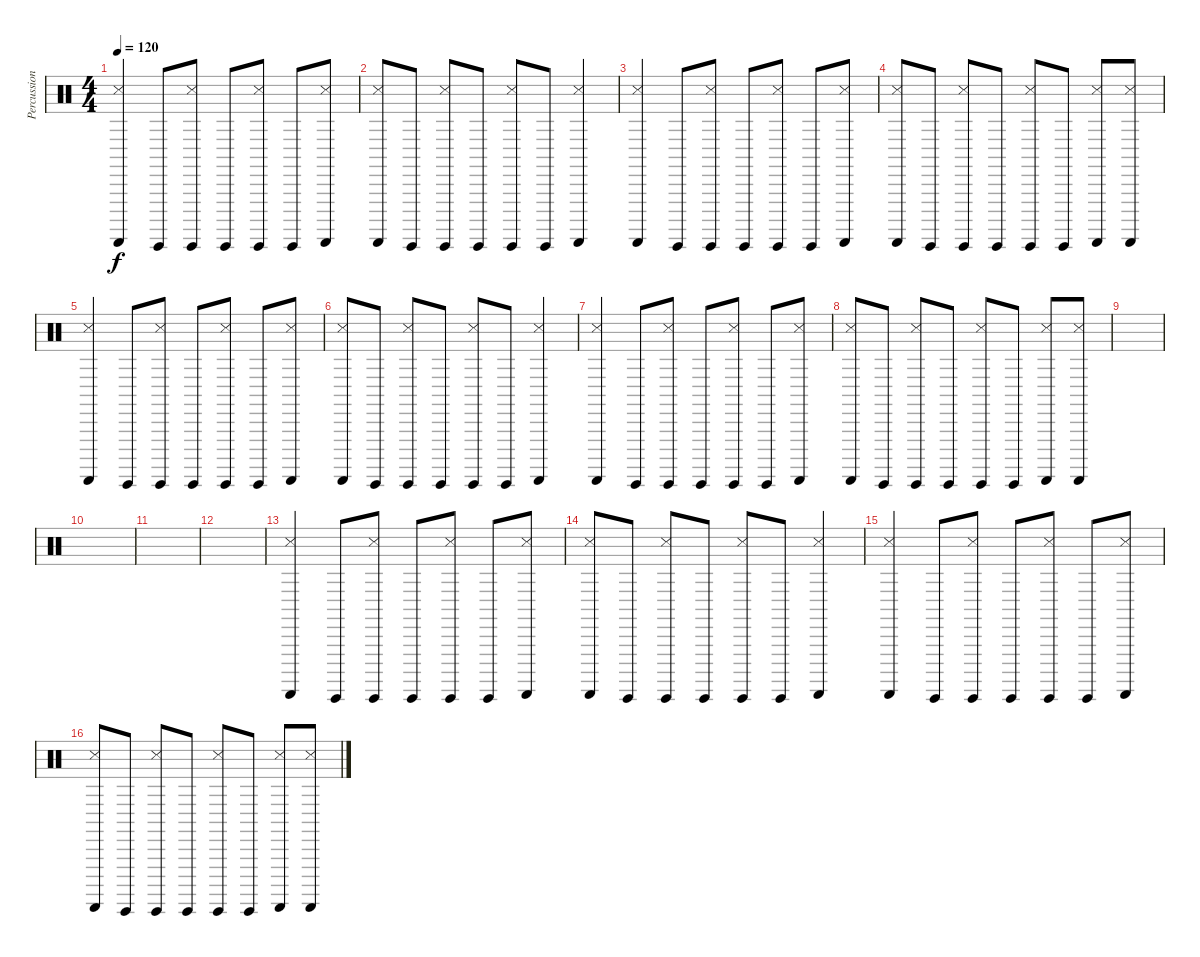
\track ("Percussions" "Percussion") {instrument percussion}
\staff {score}
\articulation defaults
\ts (4 4)
\tempo 120
\clef neutral
\ks c
("Guiro (scrap-return)" "Snare (side stick) 3").4{dy f} "Guiro (hit)".8 ("Guiro (hit)" "Snare (side stick) 3").8 "Guiro (hit)".8 ("Guiro (hit)" "Snare (side stick) 3").8 "Guiro (hit)".8 ("Guiro (scrap-return)" "Snare (side stick) 3").8 |
("Guiro (scrap-return)" "Snare (side stick) 3").8 "Guiro (hit)".8 ("Guiro (hit)" "Snare (side stick) 3").8 "Guiro (hit)".8 ("Guiro (hit)" "Snare (side stick) 3").8 "Guiro (hit)".8 ("Guiro (scrap-return)" "Snare (side stick) 3").4 |
("Guiro (scrap-return)" "Snare (side stick) 3").4 "Guiro (hit)".8 ("Guiro (hit)" "Snare (side stick) 3").8 "Guiro (hit)".8 ("Guiro (hit)" "Snare (side stick) 3").8 "Guiro (hit)".8 ("Guiro (scrap-return)" "Snare (side stick) 3").8 |
("Guiro (scrap-return)" "Snare (side stick) 3").8 "Guiro (hit)".8 ("Guiro (hit)" "Snare (side stick) 3").8 "Guiro (hit)".8 ("Guiro (hit)" "Snare (side stick) 3").8 "Guiro (hit)".8 ("Guiro (scrap-return)" "Snare (side stick) 3").8 ("Guiro (scrap-return)" "Snare (side stick) 3").8 |
("Guiro (scrap-return)" "Snare (side stick) 3").4 "Guiro (hit)".8 ("Guiro (hit)" "Snare (side stick) 3").8 "Guiro (hit)".8 ("Guiro (hit)" "Snare (side stick) 3").8 "Guiro (hit)".8 ("Guiro (scrap-return)" "Snare (side stick) 3").8 |
("Guiro (scrap-return)" "Snare (side stick) 3").8 "Guiro (hit)".8 ("Guiro (hit)" "Snare (side stick) 3").8 "Guiro (hit)".8 ("Guiro (hit)" "Snare (side stick) 3").8 "Guiro (hit)".8 ("Guiro (scrap-return)" "Snare (side stick) 3").4 |
("Guiro (scrap-return)" "Snare (side stick) 3").4 "Guiro (hit)".8 ("Guiro (hit)" "Snare (side stick) 3").8 "Guiro (hit)".8 ("Guiro (hit)" "Snare (side stick) 3").8 "Guiro (hit)".8 ("Guiro (scrap-return)" "Snare (side stick) 3").8 |
("Guiro (scrap-return)" "Snare (side stick) 3").8 "Guiro (hit)".8 ("Guiro (hit)" "Snare (side stick) 3").8 "Guiro (hit)".8 ("Guiro (hit)" "Snare (side stick) 3").8 "Guiro (hit)".8 ("Guiro (scrap-return)" "Snare (side stick) 3").8 ("Guiro (scrap-return)" "Snare (side stick) 3").8 |
|
|
|
|
("Guiro (scrap-return)" "Snare (side stick) 3").4 "Guiro (hit)".8 ("Guiro (hit)" "Snare (side stick) 3").8 "Guiro (hit)".8 ("Guiro (hit)" "Snare (side stick) 3").8 "Guiro (hit)".8 ("Guiro (scrap-return)" "Snare (side stick) 3").8 |
("Guiro (scrap-return)" "Snare (side stick) 3").8 "Guiro (hit)".8 ("Guiro (hit)" "Snare (side stick) 3").8 "Guiro (hit)".8 ("Guiro (hit)" "Snare (side stick) 3").8 "Guiro (hit)".8 ("Guiro (scrap-return)" "Snare (side stick) 3").4 |
("Guiro (scrap-return)" "Snare (side stick) 3").4 "Guiro (hit)".8 ("Guiro (hit)" "Snare (side stick) 3").8 "Guiro (hit)".8 ("Guiro (hit)" "Snare (side stick) 3").8 "Guiro (hit)".8 ("Guiro (scrap-return)" "Snare (side stick) 3").8 |
("Guiro (scrap-return)" "Snare (side stick) 3").8 "Guiro (hit)".8 ("Guiro (hit)" "Snare (side stick) 3").8 "Guiro (hit)".8 ("Guiro (hit)" "Snare (side stick) 3").8 "Guiro (hit)".8 ("Guiro (scrap-return)" "Snare (side stick) 3").8 ("Guiro (scrap-return)" "Snare (side stick) 3").8
